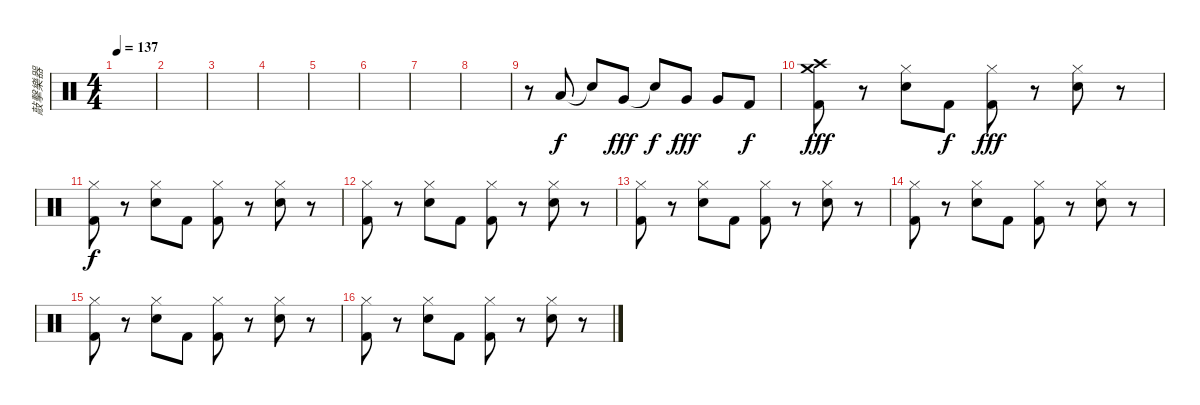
\track ("敲擊樂器" "敲擊樂器") {instrument percussion}
\staff {score}
\articulation defaults
\ts (4 4)
\tempo 137
\clef neutral
\ks c
|
|
|
|
|
|
|
|
r.8 "Low Tom (hit)".8 "Snare (hit)"{t}.8{dy f} "Very Low Tom (hit)".8{dy fff} "Snare (hit)"{t}.8{dy f} "Very Low Tom (hit)".8{dy fff} "Very Low Tom (hit)".8 "Kick (hit) 2".8{dy f} |
("Kick (hit) 2" "Crash medium (hit)" "Crash high (hit)").8{dy fff} r.8 ("Snare (hit) 2" "Hi-Hat (closed)").8 "Kick (hit) 2".8{dy f} ("Kick (hit) 2" "Hi-Hat (closed)").8{dy fff} r.8 ("Snare (hit) 2" "Hi-Hat (closed)").8 r.8 |
("Kick (hit) 2" "Hi-Hat (closed)").8{dy f} r.8 ("Snare (hit) 2" "Hi-Hat (closed)").8 "Kick (hit) 2".8 ("Kick (hit) 2" "Hi-Hat (closed)").8 r.8 ("Snare (hit) 2" "Hi-Hat (closed)").8 r.8 |
("Kick (hit) 2" "Hi-Hat (closed)").8 r.8 ("Snare (hit) 2" "Hi-Hat (closed)").8 "Kick (hit) 2".8 ("Kick (hit) 2" "Hi-Hat (closed)").8 r.8 ("Snare (hit) 2" "Hi-Hat (closed)").8 r.8 |
("Kick (hit) 2" "Hi-Hat (closed)").8 r.8 ("Snare (hit) 2" "Hi-Hat (closed)").8 "Kick (hit) 2".8 ("Kick (hit) 2" "Hi-Hat (closed)").8 r.8 ("Snare (hit) 2" "Hi-Hat (closed)").8 r.8 |
("Kick (hit) 2" "Hi-Hat (closed)").8 r.8 ("Snare (hit) 2" "Hi-Hat (closed)").8 "Kick (hit) 2".8 ("Kick (hit) 2" "Hi-Hat (closed)").8 r.8 ("Snare (hit) 2" "Hi-Hat (closed)").8 r.8 |
("Kick (hit) 2" "Hi-Hat (closed)").8 r.8 ("Snare (hit) 2" "Hi-Hat (closed)").8 "Kick (hit) 2".8 ("Kick (hit) 2" "Hi-Hat (closed)").8 r.8 ("Snare (hit) 2" "Hi-Hat (closed)").8 r.8 |
("Kick (hit) 2" "Hi-Hat (closed)").8 r.8 ("Snare (hit) 2" "Hi-Hat (closed)").8 "Kick (hit) 2".8 ("Kick (hit) 2" "Hi-Hat (closed)").8 r.8 ("Snare (hit) 2" "Hi-Hat (closed)").8 r.8
